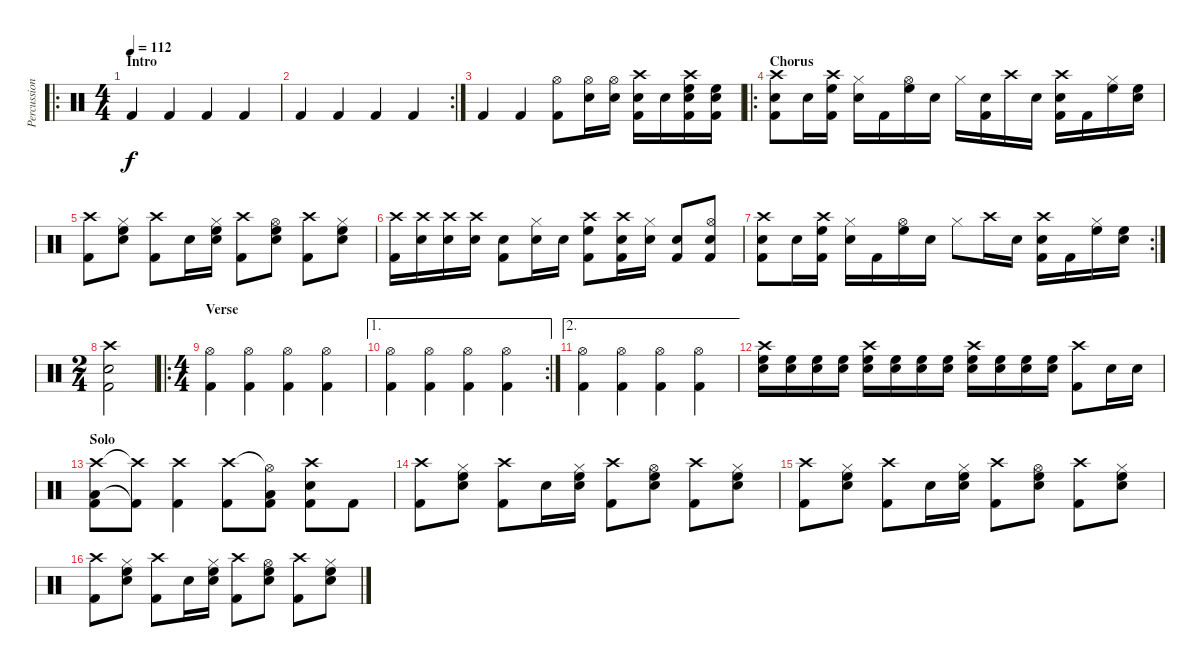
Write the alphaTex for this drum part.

\track ("Percussion" "Percussion") {instrument percussion}
\staff {score}
\articulation defaults
\ro
\ts (4 4)
\section ("" "Intro")
\tempo 112
\clef neutral
\ks c "Kick (hit) 2".4{dy f volume 6} "Kick (hit) 2".4 "Kick (hit) 2".4 "Kick (hit) 2".4
|
\rc 2 "Kick (hit) 2".4 "Kick (hit) 2".4 "Kick (hit) 2".4 "Kick (hit) 2".4
|
"Kick (hit) 2".4{volume 16} "Kick (hit) 2".4 ("Hi-Hat (open)" "Kick (hit) 2").8 ("Hi-Hat (open)" "Snare (hit) 2").16 ("Hi-Hat (open)" "Snare (hit) 2").16 ("Crash high (hit)" "Snare (hit) 2" "Kick (hit) 2").16 "Snare (hit) 2".16 ("Crash high (hit)" "Snare (hit) 2" "High Floor Tom (hit)" "Kick (hit) 2").16 ("Snare (hit) 2" "High Floor Tom (hit)" "Kick (hit) 2").16 |
\ro
\section ("" "Chorus")
("Crash high (hit)" "Snare (hit) 2" "Kick (hit) 2").8 "Snare (hit) 2".16 ("Crash high (hit)" "High Floor Tom (hit)" "Kick (hit) 2").16 ("Hi-Hat (closed)" "Snare (hit) 2").16 "Kick (hit) 2".16 ("Hi-Hat (open)" "High Floor Tom (hit)").16 "Snare (hit) 2".16 "Hi-Hat (closed)".16 ("Snare (hit) 2" "Kick (hit) 2").16 "Crash high (hit)".16 "Snare (hit) 2".16 ("Crash high (hit)" "Snare (hit) 2" "Kick (hit) 2").16 "Kick (hit) 2".16 ("Hi-Hat (closed)" "High Floor Tom (hit)").16 ("Snare (hit) 2" "High Floor Tom (hit)").16 |
("Crash high (hit)" "Kick (hit) 2").8 ("Hi-Hat (closed)" "Snare (hit) 2" "High Floor Tom (hit)").8 ("Crash high (hit)" "Kick (hit) 2").8 "Snare (hit) 2".16 ("Hi-Hat (closed)" "Snare (hit) 2" "High Floor Tom (hit)").16 ("Crash high (hit)" "Kick (hit) 2").8 ("Hi-Hat (open)" "Snare (hit) 2" "High Floor Tom (hit)").8 ("Crash high (hit)" "Kick (hit) 2").8 ("Hi-Hat (closed)" "Snare (hit) 2" "High Floor Tom (hit)").8 |
("Crash high (hit)" "Kick (hit) 2").16 ("Crash high (hit)" "Snare (hit) 2").16 ("Crash high (hit)" "Snare (hit) 2").16 ("Crash high (hit)" "Snare (hit) 2").16 ("Snare (hit) 2" "Kick (hit) 2").8 ("Hi-Hat (closed)" "Snare (hit) 2").16 "Snare (hit) 2".16 ("Crash high (hit)" "High Floor Tom (hit)" "Kick (hit) 2").8 ("Crash high (hit)" "Snare (hit) 2" "Kick (hit) 2").16 ("Hi-Hat (closed)" "Snare (hit) 2").16 ("Snare (hit) 2" "Kick (hit) 2").8 ("Hi-Hat (open)" "Snare (hit) 2" "Kick (hit) 2").8 |
\rc 2
("Crash high (hit)" "Snare (hit) 2" "Kick (hit) 2").8 "Snare (hit) 2".16 ("Crash high (hit)" "High Floor Tom (hit)" "Kick (hit) 2").16 ("Hi-Hat (closed)" "Snare (hit) 2").16 "Kick (hit) 2".16 ("Hi-Hat (open)" "High Floor Tom (hit)").16 "Snare (hit) 2".16 "Hi-Hat (closed)".8 "Crash high (hit)".16 "Snare (hit) 2".16 ("Crash high (hit)" "Snare (hit) 2" "Kick (hit) 2").16 "Kick (hit) 2".16 ("Hi-Hat (closed)" "High Floor Tom (hit)").16 ("Snare (hit) 2" "High Floor Tom (hit)").16 |
\ts (2 4)
("Crash high (hit)" "Snare (hit) 2" "Kick (hit) 2").2 |
\ro
\ts (4 4)
\section ("" "Verse")
("Hi-Hat (open)" "Kick (hit) 2").4{volume 6} ("Hi-Hat (open)" "Kick (hit) 2").4 ("Hi-Hat (open)" "Kick (hit) 2").4 ("Hi-Hat (open)" "Kick (hit) 2").4 |
\ae 1
\rc 2
("Hi-Hat (open)" "Kick (hit) 2").4 ("Hi-Hat (open)" "Kick (hit) 2").4 ("Hi-Hat (open)" "Kick (hit) 2").4 ("Hi-Hat (open)" "Kick (hit) 2").4 |
\ae 2
("Hi-Hat (open)" "Kick (hit) 2").4{volume 16} ("Hi-Hat (open)" "Kick (hit) 2").4 ("Hi-Hat (open)" "Kick (hit) 2").4 ("Hi-Hat (open)" "Kick (hit) 2").4 |
("Crash high (hit)" "Snare (hit) 2" "High Floor Tom (hit)").16 ("Snare (hit) 2" "High Floor Tom (hit)").16 ("Snare (hit) 2" "High Floor Tom (hit)").16 ("Snare (hit) 2" "High Floor Tom (hit)").16 ("Crash high (hit)" "Snare (hit) 2" "High Floor Tom (hit)").16 ("Snare (hit) 2" "High Floor Tom (hit)").16 ("Snare (hit) 2" "High Floor Tom (hit)").16 ("Snare (hit) 2" "High Floor Tom (hit)").16 ("Crash high (hit)" "Snare (hit) 2" "High Floor Tom (hit)").16 ("Snare (hit) 2" "High Floor Tom (hit)").16 ("Snare (hit) 2" "High Floor Tom (hit)").16 ("Snare (hit) 2" "High Floor Tom (hit)").16 ("Crash high (hit)" "Kick (hit) 2").8 "Snare (hit) 2".16 "Snare (hit) 2".16 |
\section ("" "Solo")
("Crash high (hit)" "Low Tom (hit)" "Kick (hit) 2").8 ("Crash high (hit)"{t} "Kick (hit) 2"{t}).8 ("Crash high (hit)" "Kick (hit) 2").4 ("Crash high (hit)" "Kick (hit) 2").8 ("Hi-Hat (open)"{t} "Low Tom (hit)" "Kick (hit) 2").8 ("Crash high (hit)" "Snare (hit) 2" "Kick (hit) 2").8 "Kick (hit) 2".8 |
("Crash high (hit)" "Kick (hit) 2").8 ("Hi-Hat (closed)" "Snare (hit) 2" "High Floor Tom (hit)").8 ("Crash high (hit)" "Kick (hit) 2").8 "Snare (hit) 2".16 ("Hi-Hat (closed)" "Snare (hit) 2" "High Floor Tom (hit)").16 ("Crash high (hit)" "Kick (hit) 2").8 ("Hi-Hat (open)" "Snare (hit) 2" "High Floor Tom (hit)").8 ("Crash high (hit)" "Kick (hit) 2").8 ("Hi-Hat (closed)" "Snare (hit) 2" "High Floor Tom (hit)").8 |
("Crash high (hit)" "Kick (hit) 2").8 ("Hi-Hat (closed)" "Snare (hit) 2" "High Floor Tom (hit)").8 ("Crash high (hit)" "Kick (hit) 2").8 "Snare (hit) 2".16 ("Hi-Hat (closed)" "Snare (hit) 2" "High Floor Tom (hit)").16 ("Crash high (hit)" "Kick (hit) 2").8 ("Hi-Hat (open)" "Snare (hit) 2" "High Floor Tom (hit)").8 ("Crash high (hit)" "Kick (hit) 2").8 ("Hi-Hat (closed)" "Snare (hit) 2" "High Floor Tom (hit)").8 |
("Crash high (hit)" "Kick (hit) 2").8 ("Hi-Hat (closed)" "Snare (hit) 2" "High Floor Tom (hit)").8 ("Crash high (hit)" "Kick (hit) 2").8 "Snare (hit) 2".16 ("Hi-Hat (closed)" "Snare (hit) 2" "High Floor Tom (hit)").16 ("Crash high (hit)" "Kick (hit) 2").8 ("Hi-Hat (open)" "Snare (hit) 2" "High Floor Tom (hit)").8 ("Crash high (hit)" "Kick (hit) 2").8 ("Hi-Hat (closed)" "Snare (hit) 2" "High Floor Tom (hit)").8
